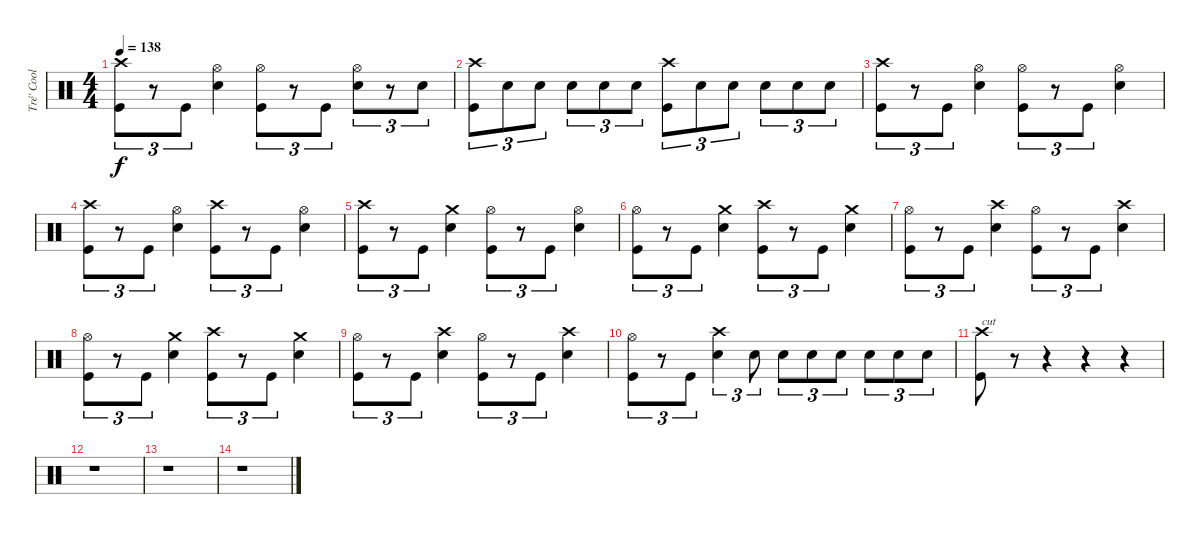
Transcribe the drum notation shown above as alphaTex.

\track ("Tré' Cool" "Tré' Cool") {instrument percussion}
\staff {score}
\articulation defaults
\ts (4 4)
\tempo 138
\clef neutral
\ks c
("Crash high (hit)" "Kick (hit)").8{tu (3 2) dy f} r.8{tu (3 2)} "Kick (hit)".8{tu (3 2)} ("Hi-Hat (open)" "Electric Snare (hit)").4 ("Hi-Hat (open)" "Kick (hit)").8{tu (3 2)} r.8{tu (3 2)} "Kick (hit)".8{tu (3 2)} ("Hi-Hat (open)" "Electric Snare (hit)").8{tu (3 2)} r.8{tu (3 2)} "Electric Snare (hit)".8{tu (3 2)} |
("Crash high (hit)" "Kick (hit)").8{tu (3 2)} "Electric Snare (hit)".8{tu (3 2)} "Electric Snare (hit)".8{tu (3 2)} "Electric Snare (hit)".8{tu (3 2)} "Electric Snare (hit)".8{tu (3 2)} "Electric Snare (hit)".8{tu (3 2)} ("Crash high (hit)" "Kick (hit)").8{tu (3 2)} "Electric Snare (hit)".8{tu (3 2)} "Electric Snare (hit)".8{tu (3 2)} "Electric Snare (hit)".8{tu (3 2)} "Electric Snare (hit)".8{tu (3 2)} "Electric Snare (hit)".8{tu (3 2)} |
("Crash high (hit)" "Kick (hit)").8{tu (3 2)} r.8{tu (3 2)} "Kick (hit)".8{tu (3 2)} ("Hi-Hat (open)" "Electric Snare (hit)").4 ("Hi-Hat (open)" "Kick (hit)").8{tu (3 2)} r.8{tu (3 2)} "Kick (hit)".8{tu (3 2)} ("Hi-Hat (open)" "Electric Snare (hit)").4 |
("Crash high (hit)" "Kick (hit)").8{tu (3 2)} r.8{tu (3 2)} "Kick (hit)".8{tu (3 2)} ("Hi-Hat (open)" "Electric Snare (hit)").4 ("Crash high (hit)" "Kick (hit)").8{tu (3 2)} r.8{tu (3 2)} "Kick (hit)".8{tu (3 2)} ("Hi-Hat (open)" "Electric Snare (hit)").4 |
("Crash high (hit)" "Kick (hit)").8{tu (3 2)} r.8{tu (3 2)} "Kick (hit)".8{tu (3 2)} ("Crash medium (hit)" "Electric Snare (hit)").4 ("Hi-Hat (open)" "Kick (hit)").8{tu (3 2)} r.8{tu (3 2)} "Kick (hit)".8{tu (3 2)} ("Hi-Hat (open)" "Electric Snare (hit)").4 |
("Hi-Hat (open)" "Kick (hit)").8{tu (3 2)} r.8{tu (3 2)} "Kick (hit)".8{tu (3 2)} ("Crash medium (hit)" "Electric Snare (hit)").4 ("Crash high (hit)" "Kick (hit)").8{tu (3 2)} r.8{tu (3 2)} "Kick (hit)".8{tu (3 2)} ("Crash medium (hit)" "Electric Snare (hit)").4 |
("Hi-Hat (open)" "Kick (hit)").8{tu (3 2)} r.8{tu (3 2)} "Kick (hit)".8{tu (3 2)} ("Crash high (hit)" "Electric Snare (hit)").4 ("Hi-Hat (open)" "Kick (hit)").8{tu (3 2)} r.8{tu (3 2)} "Kick (hit)".8{tu (3 2)} ("Crash high (hit)" "Electric Snare (hit)").4 |
("Hi-Hat (open)" "Kick (hit)").8{tu (3 2)} r.8{tu (3 2)} "Kick (hit)".8{tu (3 2)} ("Crash medium (hit)" "Electric Snare (hit)").4 ("Crash high (hit)" "Kick (hit)").8{tu (3 2)} r.8{tu (3 2)} "Kick (hit)".8{tu (3 2)} ("Crash medium (hit)" "Electric Snare (hit)").4 |
("Hi-Hat (open)" "Kick (hit)").8{tu (3 2)} r.8{tu (3 2)} "Kick (hit)".8{tu (3 2)} ("Crash high (hit)" "Electric Snare (hit)").4 ("Hi-Hat (open)" "Kick (hit)").8{tu (3 2)} r.8{tu (3 2)} "Kick (hit)".8{tu (3 2)} ("Crash high (hit)" "Electric Snare (hit)").4 |
("Hi-Hat (open)" "Kick (hit)").8{tu (3 2)} r.8{tu (3 2)} "Kick (hit)".8{tu (3 2)} ("Crash high (hit)" "Electric Snare (hit)").4{tu (3 2)} "Electric Snare (hit)".8{tu (3 2)} "Electric Snare (hit)".8{tu (3 2)} "Electric Snare (hit)".8{tu (3 2)} "Electric Snare (hit)".8{tu (3 2)} "Electric Snare (hit)".8{tu (3 2)} "Electric Snare (hit)".8{tu (3 2)} "Electric Snare (hit)".8{tu (3 2)} |
("Crash high (hit)" "Kick (hit)").8{txt "cut"} r.8 r.4 r.4 r.4 |
r.1 |
r.1 |
r.1
